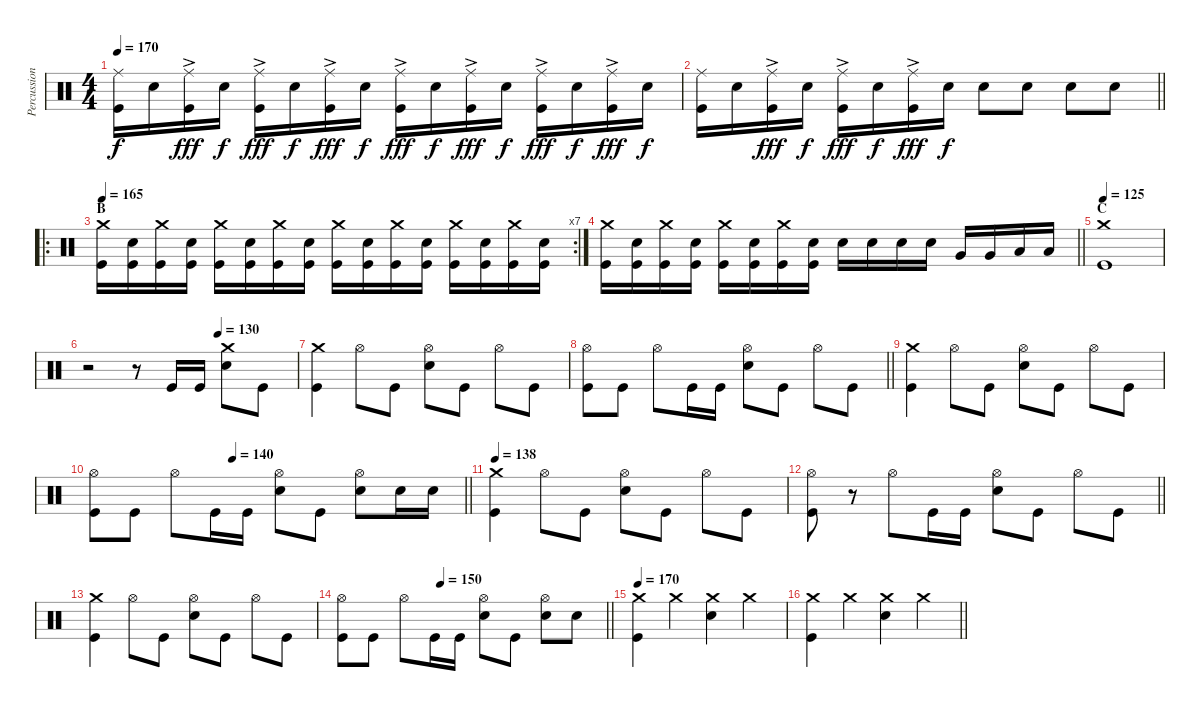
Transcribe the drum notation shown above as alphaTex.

\track ("Percussion" "Percussion") {instrument percussion}
\staff {score}
\articulation defaults
\ts (4 4)
\tempo 170
\clef neutral
\ks c
("Kick (hit)" "Ride (middle)").16{dy f} "Snare (hit) 2".16 ("Kick (hit)" "Ride (middle)"{ac}).16{dy fff} "Snare (hit) 2".16{dy f} ("Kick (hit)" "Ride (middle)"{ac}).16{dy fff} "Snare (hit) 2".16{dy f} ("Kick (hit)" "Ride (middle)"{ac}).16{dy fff} "Snare (hit) 2".16{dy f} ("Kick (hit)" "Ride (middle)"{ac}).16{dy fff} "Snare (hit) 2".16{dy f} ("Kick (hit)" "Ride (middle)"{ac}).16{dy fff} "Snare (hit) 2".16{dy f} ("Kick (hit)" "Ride (middle)"{ac}).16{dy fff} "Snare (hit) 2".16{dy f} ("Kick (hit)" "Ride (middle)"{ac}).16{dy fff} "Snare (hit) 2".16{dy f} |
\barLineRight lightlight
("Kick (hit)" "Ride (middle)").16 "Snare (hit) 2".16 ("Kick (hit)" "Ride (middle)"{ac}).16{dy fff} "Snare (hit) 2".16{dy f} ("Kick (hit)" "Ride (middle)"{ac}).16{dy fff} "Snare (hit) 2".16{dy f} ("Kick (hit)" "Ride (middle)"{ac}).16{dy fff} "Snare (hit) 2".16{dy f} "Snare (hit) 2".8 "Snare (hit) 2".8 "Snare (hit) 2".8 "Snare (hit) 2".8 |
\ro
\rc 7
\section ("" "B")
\tempo 165
("Kick (hit)" "Crash medium (hit)").16 ("Kick (hit)" "Snare (hit) 2").16 ("Kick (hit)" "Crash medium (hit)").16 ("Kick (hit)" "Snare (hit) 2").16 ("Kick (hit)" "Crash medium (hit)").16 ("Kick (hit)" "Snare (hit) 2").16 ("Kick (hit)" "Crash medium (hit)").16 ("Kick (hit)" "Snare (hit) 2").16 ("Kick (hit)" "Crash medium (hit)").16 ("Kick (hit)" "Snare (hit) 2").16 ("Kick (hit)" "Crash medium (hit)").16 ("Kick (hit)" "Snare (hit) 2").16 ("Kick (hit)" "Crash medium (hit)").16 ("Kick (hit)" "Snare (hit) 2").16 ("Kick (hit)" "Crash medium (hit)").16 ("Kick (hit)" "Snare (hit) 2").16 |
\barLineRight lightlight
("Kick (hit)" "Crash medium (hit)").16 ("Kick (hit)" "Snare (hit) 2").16 ("Kick (hit)" "Crash medium (hit)").16 ("Kick (hit)" "Snare (hit) 2").16 ("Kick (hit)" "Crash medium (hit)").16 ("Kick (hit)" "Snare (hit) 2").16 ("Kick (hit)" "Crash medium (hit)").16 ("Kick (hit)" "Snare (hit) 2").16 "Snare (hit) 2".16 "Snare (hit) 2".16 "Snare (hit) 2".16 "Snare (hit) 2".16 "Very Low Tom (hit)".16 "Very Low Tom (hit)".16 "Low Floor Tom (hit)".16 "Low Floor Tom (hit)".16 |
\section ("" "C")
\tempo 125
("Kick (hit)" "Crash medium (hit)").1 |
\tempo (130 0.625)
r.2 r.8 "Kick (hit)".16 "Kick (hit)".16 ("Snare (hit) 2" "Crash medium (hit)").8 "Kick (hit)".8 |
("Kick (hit)" "Crash medium (hit)").4 "Hi-Hat (open)".8 "Kick (hit)".8 ("Hi-Hat (open)" "Snare (hit) 2").8 "Kick (hit)".8 "Hi-Hat (open)".8 "Kick (hit)".8 |
\barLineRight lightlight
("Hi-Hat (open)" "Kick (hit)").8 "Kick (hit)".8 "Hi-Hat (open)".8 "Kick (hit)".16 "Kick (hit)".16 ("Hi-Hat (open)" "Snare (hit) 2").8 "Kick (hit)".8 "Hi-Hat (open)".8 "Kick (hit)".8 |
("Kick (hit)" "Crash medium (hit)").4 "Hi-Hat (open)".8 "Kick (hit)".8 ("Hi-Hat (open)" "Snare (hit) 2").8 "Kick (hit)".8 "Hi-Hat (open)".8 "Kick (hit)".8 |
\tempo (140 0.375)
\barLineRight lightlight
("Hi-Hat (open)" "Kick (hit)").8 "Kick (hit)".8 "Hi-Hat (open)".8 "Kick (hit)".16 "Kick (hit)".16 ("Hi-Hat (open)" "Snare (hit) 2").8 "Kick (hit)".8 ("Hi-Hat (open)" "Snare (hit) 2").8 "Snare (hit) 2".16 "Snare (hit) 2".16 |
\tempo 138
("Kick (hit)" "Crash medium (hit)").4 "Hi-Hat (open)".8 "Kick (hit)".8 ("Hi-Hat (open)" "Snare (hit) 2").8 "Kick (hit)".8 "Hi-Hat (open)".8 "Kick (hit)".8 |
\barLineRight lightlight
("Hi-Hat (open)" "Kick (hit)").8 r.8 "Hi-Hat (open)".8 "Kick (hit)".16 "Kick (hit)".16 ("Hi-Hat (open)" "Snare (hit) 2").8 "Kick (hit)".8 "Hi-Hat (open)".8 "Kick (hit)".8 |
("Kick (hit)" "Crash medium (hit)").4 "Hi-Hat (open)".8 "Kick (hit)".8 ("Hi-Hat (open)" "Snare (hit) 2").8 "Kick (hit)".8 "Hi-Hat (open)".8 "Kick (hit)".8 |
\tempo (150 0.375)
\barLineRight lightlight
("Hi-Hat (open)" "Kick (hit)").8 "Kick (hit)".8 "Hi-Hat (open)".8 "Kick (hit)".16 "Kick (hit)".16 ("Hi-Hat (open)" "Snare (hit) 2").8 "Kick (hit)".8 ("Hi-Hat (open)" "Snare (hit) 2").8 "Snare (hit) 2".8 |
\tempo 170
("Kick (hit)" "Crash medium (hit)").4 "Crash medium (hit)".4 ("Snare (hit) 2" "Crash medium (hit)").4 "Crash medium (hit)".4 |
\barLineRight lightlight
("Kick (hit)" "Crash medium (hit)").4 "Crash medium (hit)".4 ("Snare (hit) 2" "Crash medium (hit)").4 "Crash medium (hit)".4
